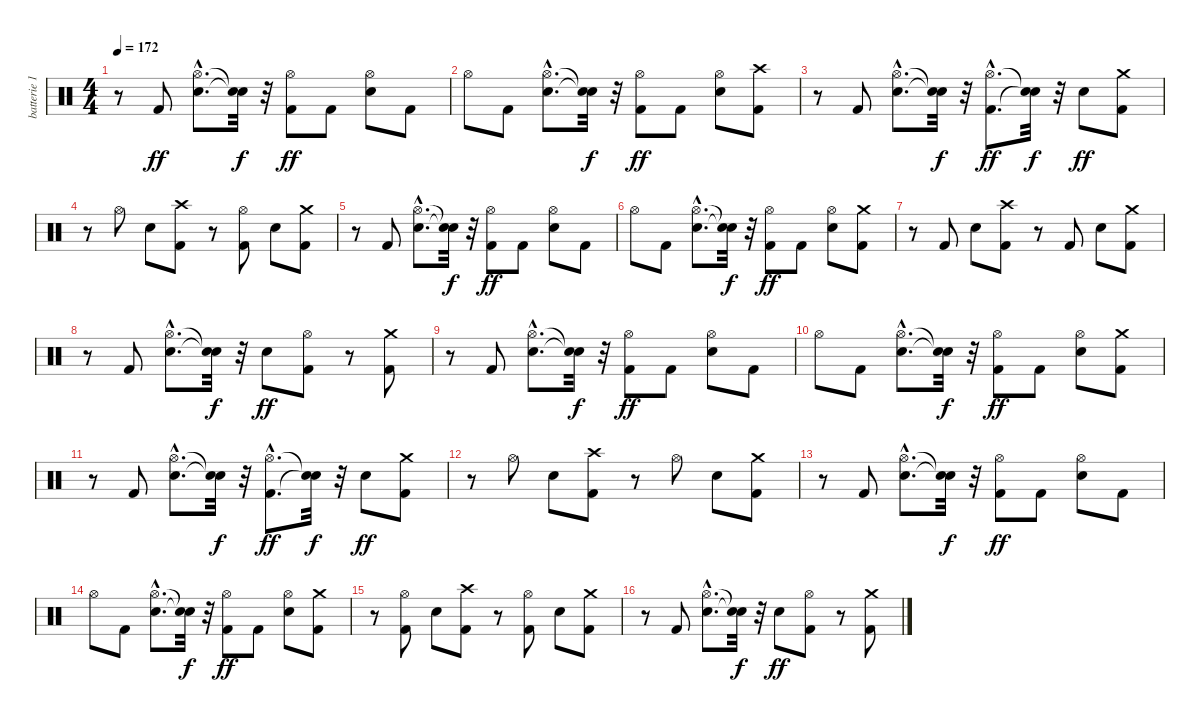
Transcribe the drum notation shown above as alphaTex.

\track ("batterie 1" "batterie 1") {instrument percussion}
\staff {score}
\articulation defaults
\ts (4 4)
\tempo 172
\clef neutral
\ks c
r.8{dy ff} "Kick (hit) 2".8 ("Electric Snare (hit)"{hac} "Hi-Hat (open)"{hac}).8{d} ("Snare (hit)"{t} "Snare (hit)"{t}).32{dy f} r.32 ("Kick (hit) 2" "Hi-Hat (open)").8{dy ff} "Kick (hit) 2".8 ("Electric Snare (hit)" "Hi-Hat (open)").8 "Kick (hit) 2".8 |
"Hi-Hat (open)".8 "Kick (hit) 2".8 ("Electric Snare (hit)"{hac} "Hi-Hat (open)"{hac}).8{d} ("Snare (hit)"{t} "Snare (hit)"{t}).32{dy f} r.32 ("Kick (hit) 2" "Hi-Hat (open)").8{dy ff} "Kick (hit) 2".8 ("Electric Snare (hit)" "Hi-Hat (open)").8 ("Kick (hit) 2" "Crash high (hit)").8 |
r.8 "Kick (hit) 2".8 ("Electric Snare (hit)"{hac} "Hi-Hat (open)"{hac}).8{d} ("Snare (hit)"{t} "Snare (hit)"{t}).32{dy f} r.32 ("Kick (hit) 2"{hac} "Hi-Hat (open)"{hac}).8{d dy ff} ("Snare (hit)"{t} "Snare (hit)"{t}).32{dy f} r.32 "Electric Snare (hit)".8{dy ff} ("Kick (hit) 2" "Crash medium (hit)").8 |
r.8 "Hi-Hat (open)".8 "Electric Snare (hit)".8 ("Kick (hit) 2" "Crash high (hit)").8 r.8 ("Kick (hit) 2" "Hi-Hat (open)").8 "Electric Snare (hit)".8 ("Kick (hit) 2" "Crash medium (hit)").8 |
r.8 "Kick (hit) 2".8 ("Electric Snare (hit)"{hac} "Hi-Hat (open)"{hac}).8{d} ("Snare (hit)"{t} "Snare (hit)"{t}).32{dy f} r.32 ("Kick (hit) 2" "Hi-Hat (open)").8{dy ff} "Kick (hit) 2".8 ("Electric Snare (hit)" "Hi-Hat (open)").8 "Kick (hit) 2".8 |
"Hi-Hat (open)".8 "Kick (hit) 2".8 ("Electric Snare (hit)"{hac} "Hi-Hat (open)"{hac}).8{d} ("Snare (hit)"{t} "Snare (hit)"{t}).32{dy f} r.32 ("Kick (hit) 2" "Hi-Hat (open)").8{dy ff} "Kick (hit) 2".8 ("Electric Snare (hit)" "Hi-Hat (open)").8 ("Kick (hit) 2" "Crash medium (hit)").8 |
r.8 "Kick (hit) 2".8 "Electric Snare (hit)".8 ("Kick (hit) 2" "Crash high (hit)").8 r.8 "Kick (hit) 2".8 "Electric Snare (hit)".8 ("Kick (hit) 2" "Crash medium (hit)").8 |
r.8 "Kick (hit) 2".8 ("Electric Snare (hit)"{hac} "Hi-Hat (open)"{hac}).8{d} ("Snare (hit)"{t} "Snare (hit)"{t}).32{dy f} r.32 "Electric Snare (hit)".8{dy ff} ("Kick (hit) 2" "Hi-Hat (open)").8 r.8 ("Kick (hit) 2" "Crash medium (hit)").8 |
r.8 "Kick (hit) 2".8 ("Electric Snare (hit)"{hac} "Hi-Hat (open)"{hac}).8{d} ("Snare (hit)"{t} "Snare (hit)"{t}).32{dy f} r.32 ("Kick (hit) 2" "Hi-Hat (open)").8{dy ff} "Kick (hit) 2".8 ("Electric Snare (hit)" "Hi-Hat (open)").8 "Kick (hit) 2".8 |
"Hi-Hat (open)".8 "Kick (hit) 2".8 ("Electric Snare (hit)"{hac} "Hi-Hat (open)"{hac}).8{d} ("Snare (hit)"{t} "Snare (hit)"{t}).32{dy f} r.32 ("Kick (hit) 2" "Hi-Hat (open)").8{dy ff} "Kick (hit) 2".8 ("Electric Snare (hit)" "Hi-Hat (open)").8 ("Kick (hit) 2" "Crash medium (hit)").8 |
r.8 "Kick (hit) 2".8 ("Electric Snare (hit)"{hac} "Hi-Hat (open)"{hac}).8{d} ("Snare (hit)"{t} "Snare (hit)"{t}).32{dy f} r.32 ("Kick (hit) 2"{hac} "Hi-Hat (open)"{hac}).8{d dy ff} ("Snare (hit)"{t} "Snare (hit)"{t}).32{dy f} r.32 "Electric Snare (hit)".8{dy ff} ("Kick (hit) 2" "Crash medium (hit)").8 |
r.8 "Hi-Hat (open)".8 "Electric Snare (hit)".8 ("Kick (hit) 2" "Crash high (hit)").8 r.8 "Hi-Hat (open)".8 "Electric Snare (hit)".8 ("Kick (hit) 2" "Crash medium (hit)").8 |
r.8 "Kick (hit) 2".8 ("Electric Snare (hit)"{hac} "Hi-Hat (open)"{hac}).8{d} ("Snare (hit)"{t} "Snare (hit)"{t}).32{dy f} r.32 ("Kick (hit) 2" "Hi-Hat (open)").8{dy ff} "Kick (hit) 2".8 ("Electric Snare (hit)" "Hi-Hat (open)").8 "Kick (hit) 2".8 |
"Hi-Hat (open)".8 "Kick (hit) 2".8 ("Electric Snare (hit)"{hac} "Hi-Hat (open)"{hac}).8{d} ("Snare (hit)"{t} "Snare (hit)"{t}).32{dy f} r.32 ("Kick (hit) 2" "Hi-Hat (open)").8{dy ff} "Kick (hit) 2".8 ("Electric Snare (hit)" "Hi-Hat (open)").8 ("Kick (hit) 2" "Crash medium (hit)").8 |
r.8 ("Kick (hit) 2" "Hi-Hat (open)").8 "Electric Snare (hit)".8 ("Kick (hit) 2" "Crash high (hit)").8 r.8 ("Kick (hit) 2" "Hi-Hat (open)").8 "Electric Snare (hit)".8 ("Kick (hit) 2" "Crash medium (hit)").8 |
r.8 "Kick (hit) 2".8 ("Electric Snare (hit)"{hac} "Hi-Hat (open)"{hac}).8{d} ("Snare (hit)"{t} "Snare (hit)"{t}).32{dy f} r.32 "Electric Snare (hit)".8{dy ff} ("Kick (hit) 2" "Hi-Hat (open)").8 r.8 ("Kick (hit) 2" "Crash medium (hit)").8
